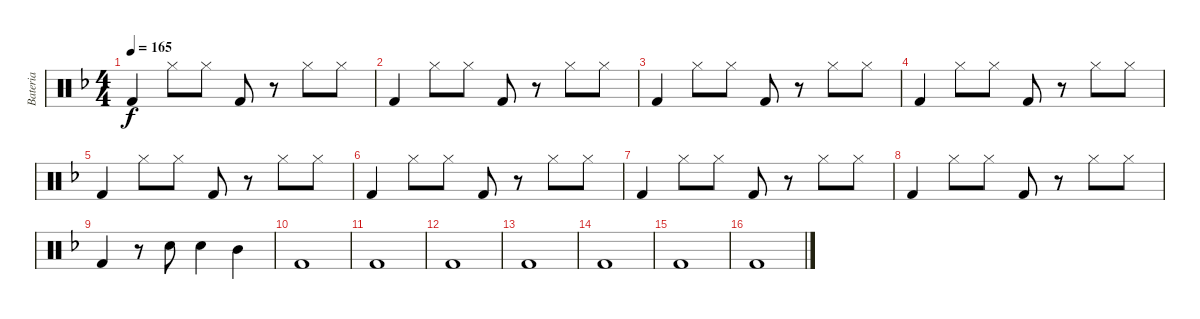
\track ("Bateria" "Bateria") {instrument percussion}
\staff {score}
\articulation defaults
\ts (4 4)
\tempo 165
\clef neutral
\ks dminor "Kick (hit) 2".4{dy f} "Hi-Hat (closed)".8 "Hi-Hat (closed)".8 "Kick (hit) 2".8
r.8 "Hi-Hat (closed)".8 "Hi-Hat (closed)".8 |
"Kick (hit) 2".4 "Hi-Hat (closed)".8 "Hi-Hat (closed)".8 "Kick (hit) 2".8 r.8 "Hi-Hat (closed)".8 "Hi-Hat (closed)".8 |
"Kick (hit) 2".4 "Hi-Hat (closed)".8 "Hi-Hat (closed)".8 "Kick (hit) 2".8 r.8 "Hi-Hat (closed)".8 "Hi-Hat (closed)".8 |
"Kick (hit) 2".4 "Hi-Hat (closed)".8 "Hi-Hat (closed)".8 "Kick (hit) 2".8 r.8 "Hi-Hat (closed)".8 "Hi-Hat (closed)".8 |
"Kick (hit) 2".4 "Hi-Hat (closed)".8 "Hi-Hat (closed)".8 "Kick (hit) 2".8 r.8 "Hi-Hat (closed)".8 "Hi-Hat (closed)".8 |
"Kick (hit) 2".4 "Hi-Hat (closed)".8 "Hi-Hat (closed)".8 "Kick (hit) 2".8 r.8 "Hi-Hat (closed)".8 "Hi-Hat (closed)".8 |
"Kick (hit) 2".4 "Hi-Hat (closed)".8 "Hi-Hat (closed)".8 "Kick (hit) 2".8 r.8 "Hi-Hat (closed)".8 "Hi-Hat (closed)".8 |
"Kick (hit) 2".4 "Hi-Hat (closed)".8 "Hi-Hat (closed)".8 "Kick (hit) 2".8 r.8 "Hi-Hat (closed)".8 "Hi-Hat (closed)".8 |
"Kick (hit) 2".4 r.8 "Snare (hit) 2".8 "Snare (hit) 2".4 "Mid Tom (hit)".4 |
"Kick (hit) 2".1 |
"Kick (hit) 2".1 |
"Kick (hit) 2".1 |
"Kick (hit) 2".1 |
"Kick (hit) 2".1 |
"Kick (hit) 2".1 |
"Kick (hit) 2".1
